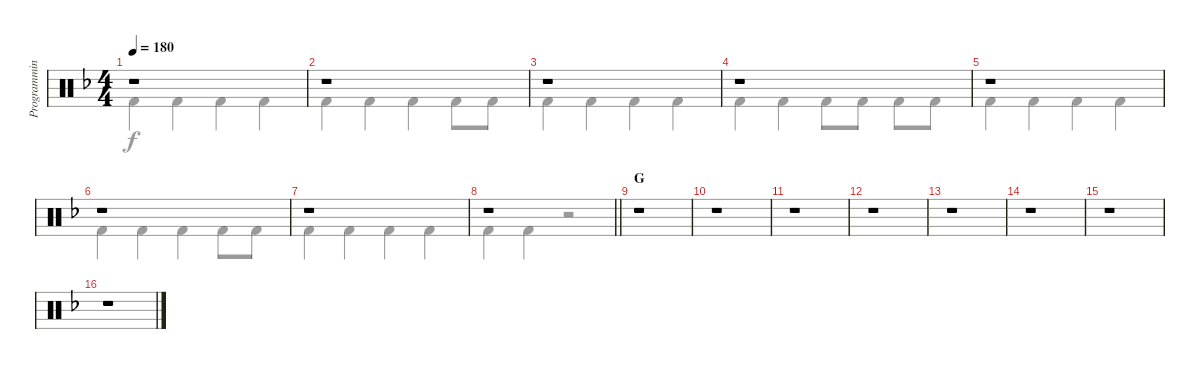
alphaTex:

\track ("Programming" "Programmin") {instrument percussion}
\staff {score}
\articulation defaults
\voice
\ts (4 4)
\tempo 180
\clef neutral
\ks f
r.1{dy mp} |
r.1 |
r.1 |
r.1 |
r.1 |
r.1 |
r.1 |
\barLineRight lightlight
r.1 |
\section ("" "G")
r.1 |
r.1 |
r.1 |
r.1 |
r.1 |
r.1 |
r.1 |
r.1
\voice
\clef neutral
\ottava regular
\simile none
\ks f "Kick (hit) 2".4{dy f} "Kick (hit) 2".4 "Kick (hit) 2".4 "Kick (hit) 2".4
|
"Kick (hit) 2".4 "Kick (hit) 2".4 "Kick (hit) 2".4 "Kick (hit) 2".8 "Kick (hit) 2".8 |
"Kick (hit) 2".4 "Kick (hit) 2".4 "Kick (hit) 2".4 "Kick (hit) 2".4 |
"Kick (hit) 2".4 "Kick (hit) 2".4 "Kick (hit) 2".8 "Kick (hit) 2".8 "Kick (hit) 2".8 "Kick (hit) 2".8 |
"Kick (hit) 2".4 "Kick (hit) 2".4 "Kick (hit) 2".4 "Kick (hit) 2".4 |
"Kick (hit) 2".4 "Kick (hit) 2".4 "Kick (hit) 2".4 "Kick (hit) 2".8 "Kick (hit) 2".8 |
"Kick (hit) 2".4 "Kick (hit) 2".4 "Kick (hit) 2".4 "Kick (hit) 2".4 |
\barLineRight lightlight "Kick (hit) 2".4 "Kick (hit) 2".4
r.2 |
r.1 |
r.1 |
r.1 |
r.1 |
r.1 |
r.1 |
r.1 |
r.1
